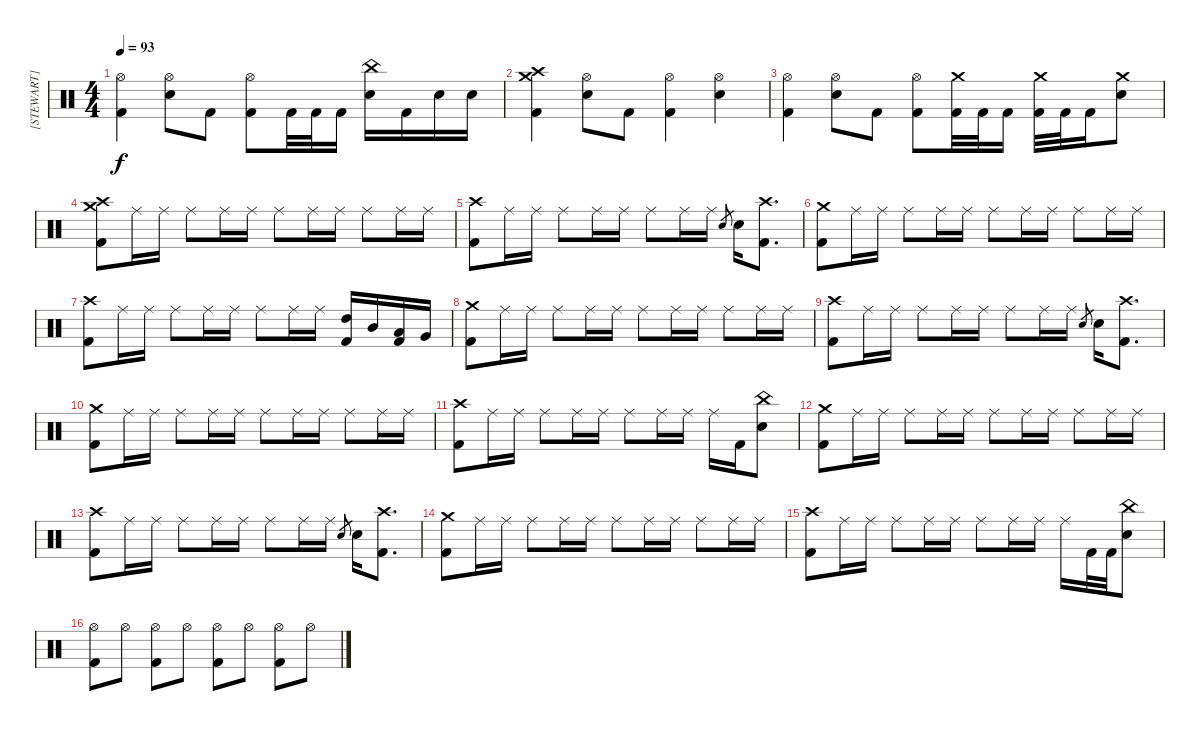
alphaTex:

\track ("[STEWART]" "[STEWART]") {instrument percussion}
\staff
\articulation defaults
\ts (4 4)
\tempo 93
\clef neutral
\ks c
("Hi-Hat (open)" "Kick (hit) 2").4{dy f} ("Hi-Hat (open)" "Snare (hit) 2").8 "Kick (hit) 2".8 ("Hi-Hat (open)" "Kick (hit) 2").8 "Kick (hit) 2".32 "Kick (hit) 2".32 "Kick (hit) 2".16 ("China (hit)" "Snare (hit) 2").16 "Kick (hit) 2".16 "Snare (hit) 2".16 "Snare (hit) 2".16 |
("Crash high (hit)" "Crash medium (hit)" "Kick (hit) 2").4 ("Hi-Hat (open)" "Snare (hit) 2").8 "Kick (hit) 2".8 ("Hi-Hat (open)" "Kick (hit) 2").4 ("Hi-Hat (open)" "Snare (hit) 2").4 |
("Hi-Hat (open)" "Kick (hit) 2").4 ("Hi-Hat (open)" "Snare (hit) 2").8 "Kick (hit) 2".8 ("Hi-Hat (open)" "Kick (hit) 2").8 ("Crash medium (hit)" "Kick (hit) 2").32 "Kick (hit) 2".32 "Kick (hit) 2".16 ("Crash medium (hit)" "Kick (hit) 2").32 "Kick (hit) 2".32 "Kick (hit) 2".16 ("Crash medium (hit)" "Snare (hit) 2").8 |
("Crash high (hit)" "Crash medium (hit)" "Kick (hit) 2").8 "Ride (middle)".16 "Ride (middle)".16 "Ride (middle)".8 "Ride (middle)".16 "Ride (middle)".16 "Ride (middle)".8 "Ride (middle)".16 "Ride (middle)".16 "Ride (middle)".8 "Ride (middle)".16 "Ride (middle)".16 |
("Crash high (hit)" "Kick (hit) 2").8 "Ride (middle)".16 "Ride (middle)".16 "Ride (middle)".8 "Ride (middle)".16 "Ride (middle)".16 "Ride (middle)".8 "Ride (middle)".16 "Ride (middle)".16 "Snare (hit) 2".8{gr} "Snare (hit) 2".16 ("Crash high (hit)" "Kick (hit) 2").8{d} |
("Crash medium (hit)" "Kick (hit) 2").8 "Ride (middle)".16 "Ride (middle)".16 "Ride (middle)".8 "Ride (middle)".16 "Ride (middle)".16 "Ride (middle)".8 "Ride (middle)".16 "Ride (middle)".16 "Ride (middle)".8 "Ride (middle)".16 "Ride (middle)".16 |
("Crash high (hit)" "Kick (hit) 2").8 "Ride (middle)".16 "Ride (middle)".16 "Ride (middle)".8 "Ride (middle)".16 "Ride (middle)".16 "Ride (middle)".8 "Ride (middle)".16 "Ride (middle)".16 ("High Tom (hit)" "Kick (hit) 2").16 "Mid Tom (hit)".16 ("Low Tom (hit)" "Kick (hit) 2").16 "Very Low Tom (hit)".16 |
("Crash medium (hit)" "Kick (hit) 2").8 "Ride (middle)".16 "Ride (middle)".16 "Ride (middle)".8 "Ride (middle)".16 "Ride (middle)".16 "Ride (middle)".8 "Ride (middle)".16 "Ride (middle)".16 "Ride (middle)".8 "Ride (middle)".16 "Ride (middle)".16 |
("Crash high (hit)" "Kick (hit) 2").8 "Ride (middle)".16 "Ride (middle)".16 "Ride (middle)".8 "Ride (middle)".16 "Ride (middle)".16 "Ride (middle)".8 "Ride (middle)".16 "Ride (middle)".16 "Snare (hit) 2".8{gr} "Snare (hit) 2".16 ("Crash high (hit)" "Kick (hit) 2").8{d} |
("Crash medium (hit)" "Kick (hit) 2").8 "Ride (middle)".16 "Ride (middle)".16 "Ride (middle)".8 "Ride (middle)".16 "Ride (middle)".16 "Ride (middle)".8 "Ride (middle)".16 "Ride (middle)".16 "Ride (middle)".8 "Ride (middle)".16 "Ride (middle)".16 |
("Crash high (hit)" "Kick (hit) 2").8 "Ride (middle)".16 "Ride (middle)".16 "Ride (middle)".8 "Ride (middle)".16 "Ride (middle)".16 "Ride (middle)".8 "Ride (middle)".16 "Ride (middle)".16 "Ride (middle)".16 "Kick (hit) 2".16 ("China (hit)" "Snare (hit) 2").8 |
("Crash medium (hit)" "Kick (hit) 2").8 "Ride (middle)".16 "Ride (middle)".16 "Ride (middle)".8 "Ride (middle)".16 "Ride (middle)".16 "Ride (middle)".8 "Ride (middle)".16 "Ride (middle)".16 "Ride (middle)".8 "Ride (middle)".16 "Ride (middle)".16 |
("Crash high (hit)" "Kick (hit) 2").8 "Ride (middle)".16 "Ride (middle)".16 "Ride (middle)".8 "Ride (middle)".16 "Ride (middle)".16 "Ride (middle)".8 "Ride (middle)".16 "Ride (middle)".16 "Snare (hit) 2".8{gr} "Snare (hit) 2".16 ("Crash high (hit)" "Kick (hit) 2").8{d} |
("Crash medium (hit)" "Kick (hit) 2").8 "Ride (middle)".16 "Ride (middle)".16 "Ride (middle)".8 "Ride (middle)".16 "Ride (middle)".16 "Ride (middle)".8 "Ride (middle)".16 "Ride (middle)".16 "Ride (middle)".8 "Ride (middle)".16 "Ride (middle)".16 |
("Crash high (hit)" "Kick (hit) 2").8 "Ride (middle)".16 "Ride (middle)".16 "Ride (middle)".8 "Ride (middle)".16 "Ride (middle)".16 "Ride (middle)".8 "Ride (middle)".16 "Ride (middle)".16 "Ride (middle)".16 "Kick (hit) 2".32 "Kick (hit) 2".32 ("China (hit)" "Snare (hit) 2").8 |
("Hi-Hat (open)" "Kick (hit) 2").8 "Hi-Hat (open)".8 ("Hi-Hat (open)" "Kick (hit) 2").8 "Hi-Hat (open)".8 ("Hi-Hat (open)" "Kick (hit) 2").8 "Hi-Hat (open)".8 ("Hi-Hat (open)" "Kick (hit) 2").8 "Hi-Hat (open)".8
